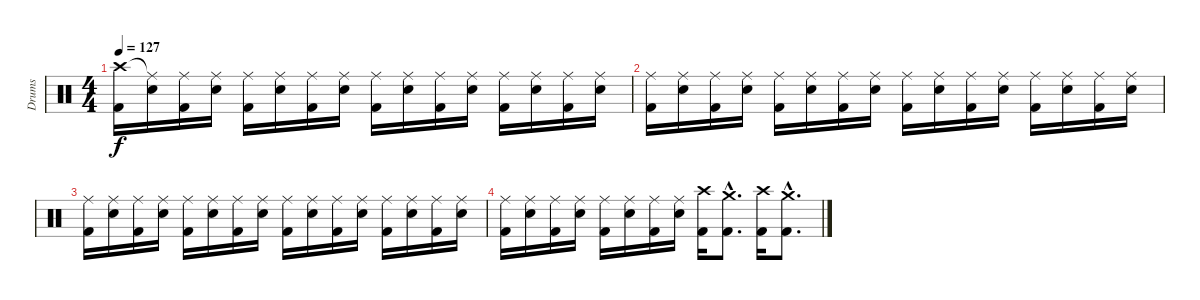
\track ("Drums" "Drums") {instrument percussion}
\staff {score}
\articulation defaults
\ts (4 4)
\tempo 127
\clef neutral
\ks c
("Crash high (hit)" "Kick (hit) 2").16{dy f} ("Ride (middle)"{t} "Snare (hit) 2").16 ("Ride (middle)" "Kick (hit) 2").16 ("Ride (middle)" "Snare (hit) 2").16 ("Ride (middle)" "Kick (hit) 2").16 ("Ride (middle)" "Snare (hit) 2").16 ("Ride (middle)" "Kick (hit) 2").16 ("Ride (middle)" "Snare (hit) 2").16 ("Ride (middle)" "Kick (hit) 2").16 ("Ride (middle)" "Snare (hit) 2").16 ("Ride (middle)" "Kick (hit) 2").16 ("Ride (middle)" "Snare (hit) 2").16 ("Ride (middle)" "Kick (hit) 2").16 ("Ride (middle)" "Snare (hit) 2").16 ("Ride (middle)" "Kick (hit) 2").16 ("Ride (middle)" "Snare (hit) 2").16 |
("Ride (middle)" "Kick (hit) 2").16 ("Ride (middle)" "Snare (hit) 2").16 ("Ride (middle)" "Kick (hit) 2").16 ("Ride (middle)" "Snare (hit) 2").16 ("Ride (middle)" "Kick (hit) 2").16 ("Ride (middle)" "Snare (hit) 2").16 ("Ride (middle)" "Kick (hit) 2").16 ("Ride (middle)" "Snare (hit) 2").16 ("Ride (middle)" "Kick (hit) 2").16 ("Ride (middle)" "Snare (hit) 2").16 ("Ride (middle)" "Kick (hit) 2").16 ("Ride (middle)" "Snare (hit) 2").16 ("Ride (middle)" "Kick (hit) 2").16 ("Ride (middle)" "Snare (hit) 2").16 ("Ride (middle)" "Kick (hit) 2").16 ("Ride (middle)" "Snare (hit) 2").16 |
("Ride (middle)" "Kick (hit) 2").16 ("Ride (middle)" "Snare (hit) 2").16 ("Ride (middle)" "Kick (hit) 2").16 ("Ride (middle)" "Snare (hit) 2").16 ("Ride (middle)" "Kick (hit) 2").16 ("Ride (middle)" "Snare (hit) 2").16 ("Ride (middle)" "Kick (hit) 2").16 ("Ride (middle)" "Snare (hit) 2").16 ("Ride (middle)" "Kick (hit) 2").16 ("Ride (middle)" "Snare (hit) 2").16 ("Ride (middle)" "Kick (hit) 2").16 ("Ride (middle)" "Snare (hit) 2").16 ("Ride (middle)" "Kick (hit) 2").16 ("Ride (middle)" "Snare (hit) 2").16 ("Ride (middle)" "Kick (hit) 2").16 ("Ride (middle)" "Snare (hit) 2").16 |
("Ride (middle)" "Kick (hit) 2").16 ("Ride (middle)" "Snare (hit) 2").16 ("Ride (middle)" "Kick (hit) 2").16 ("Ride (middle)" "Snare (hit) 2").16 ("Ride (middle)" "Kick (hit) 2").16 ("Ride (middle)" "Snare (hit) 2").16 ("Ride (middle)" "Kick (hit) 2").16 ("Ride (middle)" "Snare (hit) 2").16 ("Crash high (hit)" "Kick (hit) 2").16 ("Crash medium (hit)"{hac} "Kick (hit) 2"{hac}).8{d} ("Crash high (hit)" "Kick (hit) 2").16 ("Crash medium (hit)"{hac} "Kick (hit) 2"{hac}).8{d}
